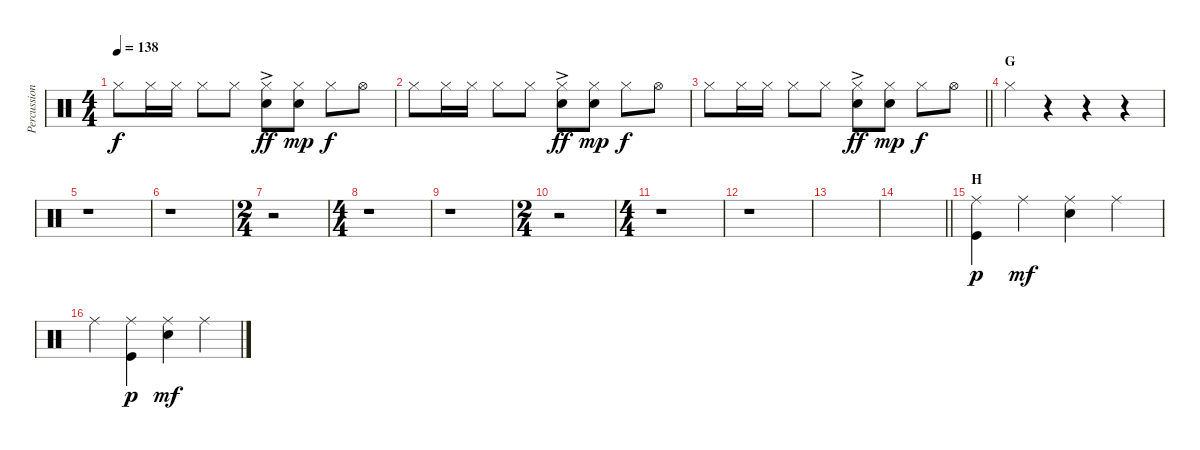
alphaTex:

\track ("Percussion" "Percussion") {instrument percussion}
\staff {score}
\articulation defaults
\ts (4 4)
\tempo 138
\clef neutral
\ks c "Hi-Hat (closed)".8{dy f} "Hi-Hat (closed)".16 "Hi-Hat (closed)".16 "Hi-Hat (closed)".8 "Hi-Hat (closed)".8
("Hi-Hat (closed)" "Snare (hit) 2"{ac}).8{dy ff} ("Hi-Hat (closed)" "Snare (hit) 2").8{dy mp} "Hi-Hat (closed)".8{dy f} "Hi-Hat (open)".8 |
"Hi-Hat (closed)".8 "Hi-Hat (closed)".16 "Hi-Hat (closed)".16 "Hi-Hat (closed)".8 "Hi-Hat (closed)".8 ("Hi-Hat (closed)" "Snare (hit) 2"{ac}).8{dy ff} ("Hi-Hat (closed)" "Snare (hit) 2").8{dy mp} "Hi-Hat (closed)".8{dy f} "Hi-Hat (open)".8 |
\barLineRight lightlight "Hi-Hat (closed)".8 "Hi-Hat (closed)".16 "Hi-Hat (closed)".16 "Hi-Hat (closed)".8 "Hi-Hat (closed)".8
("Hi-Hat (closed)" "Snare (hit) 2"{ac}).8{dy ff} ("Hi-Hat (closed)" "Snare (hit) 2").8{dy mp} "Hi-Hat (closed)".8{dy f} "Hi-Hat (open)".8 |
\section ("" "G")
"Hi-Hat (closed)".4 r.4 r.4 r.4 |
r.1 |
r.1 |
\ts (2 4)
r.2 |
\ts (4 4)
r.1 |
r.1 |
\ts (2 4)
r.2 |
\ts (4 4)
r.1 |
r.1 |
|
\barLineRight lightlight
|
\section ("" "H")
("Ride (middle)" "Kick (hit)").4{dy p} "Ride (middle)".4{dy mf} ("Ride (middle)" "Snare (hit) 2").4 "Ride (middle)".4 |
"Ride (middle)".4 ("Ride (middle)" "Kick (hit)").4{dy p} ("Ride (middle)" "Snare (hit) 2").4{dy mf} "Ride (middle)".4
